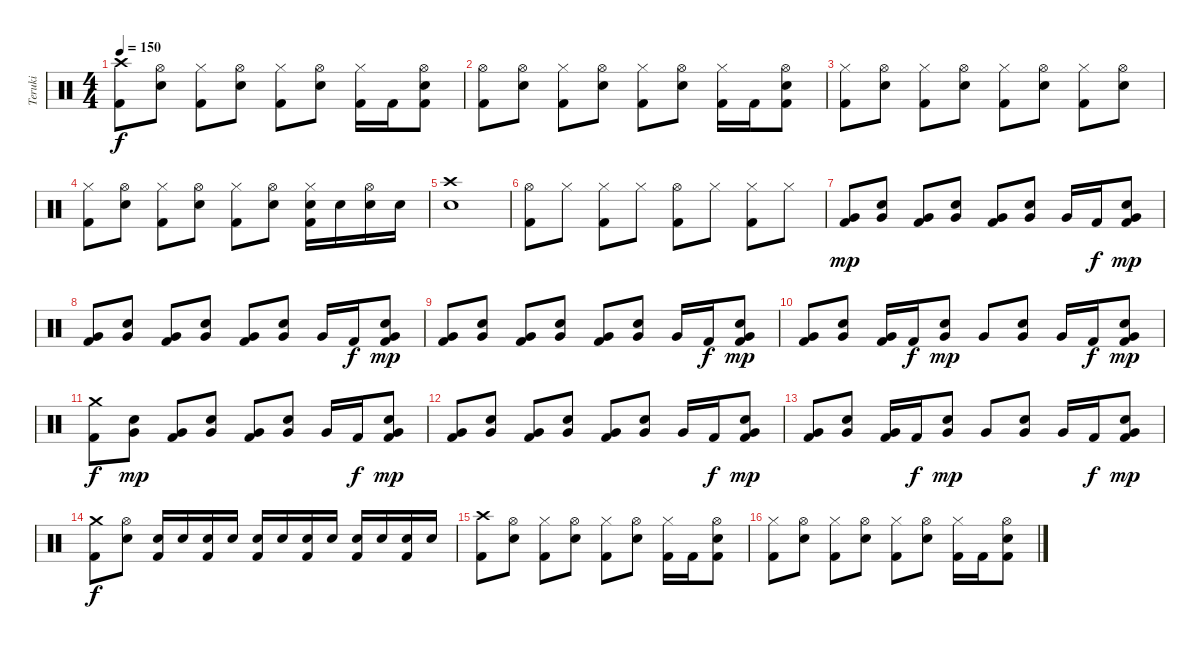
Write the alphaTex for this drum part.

\track ("Teruki" "Teruki") {instrument percussion}
\staff {score}
\articulation defaults
\ts (4 4)
\tempo 150
\clef neutral
\ks c
("Crash high (hit)" "Kick (hit) 2").8{dy f} ("Hi-Hat (open)" "Electric Snare (hit)").8 ("Hi-Hat (closed)" "Kick (hit) 2").8 ("Hi-Hat (open)" "Electric Snare (hit)").8 ("Hi-Hat (closed)" "Kick (hit) 2").8 ("Hi-Hat (open)" "Electric Snare (hit)").8 ("Hi-Hat (closed)" "Kick (hit) 2").16 "Kick (hit) 2".16 ("Hi-Hat (open)" "Electric Snare (hit)" "Kick (hit) 2").8 |
("Hi-Hat (open)" "Kick (hit) 2").8 ("Hi-Hat (open)" "Electric Snare (hit)").8 ("Hi-Hat (closed)" "Kick (hit) 2").8 ("Hi-Hat (open)" "Electric Snare (hit)").8 ("Hi-Hat (closed)" "Kick (hit) 2").8 ("Hi-Hat (open)" "Electric Snare (hit)").8 ("Hi-Hat (closed)" "Kick (hit) 2").16 "Kick (hit) 2".16 ("Hi-Hat (open)" "Electric Snare (hit)" "Kick (hit) 2").8 |
("Hi-Hat (closed)" "Kick (hit) 2").8 ("Hi-Hat (open)" "Electric Snare (hit)").8 ("Hi-Hat (closed)" "Kick (hit) 2").8 ("Hi-Hat (open)" "Electric Snare (hit)").8 ("Hi-Hat (closed)" "Kick (hit) 2").8 ("Hi-Hat (open)" "Electric Snare (hit)").8 ("Hi-Hat (closed)" "Kick (hit) 2").8 ("Hi-Hat (open)" "Electric Snare (hit)").8 |
("Hi-Hat (closed)" "Kick (hit) 2").8 ("Hi-Hat (open)" "Electric Snare (hit)").8 ("Hi-Hat (closed)" "Kick (hit) 2").8 ("Hi-Hat (open)" "Electric Snare (hit)").8 ("Hi-Hat (closed)" "Kick (hit) 2").8 ("Hi-Hat (open)" "Electric Snare (hit)").8 ("Hi-Hat (closed)" "Electric Snare (hit)" "Kick (hit) 2").16 "Electric Snare (hit)".16 ("Hi-Hat (open)" "Electric Snare (hit)").16 "Electric Snare (hit)".16 |
("Crash high (hit)" "Electric Snare (hit)").1 |
("Hi-Hat (open)" "Kick (hit) 2").8 "Hi-Hat (closed)".8 ("Hi-Hat (closed)" "Kick (hit) 2").8 "Hi-Hat (closed)".8 ("Hi-Hat (open)" "Kick (hit) 2").8 "Hi-Hat (closed)".8 ("Hi-Hat (closed)" "Kick (hit) 2").8 "Hi-Hat (closed)".8 |
("Very Low Tom (hit)" "Kick (hit) 2").8{dy mp} ("Very Low Tom (hit)" "Electric Snare (hit)").8 ("Very Low Tom (hit)" "Kick (hit) 2").8 ("Very Low Tom (hit)" "Electric Snare (hit)").8 ("Very Low Tom (hit)" "Kick (hit) 2").8 ("Very Low Tom (hit)" "Electric Snare (hit)").8 "Very Low Tom (hit)".16 "Kick (hit) 2".16{dy f} ("Very Low Tom (hit)" "Electric Snare (hit)" "Kick (hit) 2").8{dy mp} |
("Very Low Tom (hit)" "Kick (hit) 2").8 ("Very Low Tom (hit)" "Electric Snare (hit)").8 ("Very Low Tom (hit)" "Kick (hit) 2").8 ("Very Low Tom (hit)" "Electric Snare (hit)").8 ("Very Low Tom (hit)" "Kick (hit) 2").8 ("Very Low Tom (hit)" "Electric Snare (hit)").8 "Very Low Tom (hit)".16 "Kick (hit) 2".16{dy f} ("Very Low Tom (hit)" "Electric Snare (hit)" "Kick (hit) 2").8{dy mp} |
("Very Low Tom (hit)" "Kick (hit) 2").8 ("Very Low Tom (hit)" "Electric Snare (hit)").8 ("Very Low Tom (hit)" "Kick (hit) 2").8 ("Very Low Tom (hit)" "Electric Snare (hit)").8 ("Very Low Tom (hit)" "Kick (hit) 2").8 ("Very Low Tom (hit)" "Electric Snare (hit)").8 "Very Low Tom (hit)".16 "Kick (hit) 2".16{dy f} ("Very Low Tom (hit)" "Electric Snare (hit)" "Kick (hit) 2").8{dy mp} |
("Very Low Tom (hit)" "Kick (hit) 2").8 ("Very Low Tom (hit)" "Electric Snare (hit)").8 ("Very Low Tom (hit)" "Kick (hit) 2").16 "Kick (hit) 2".16{dy f} ("Very Low Tom (hit)" "Electric Snare (hit)").8{dy mp} "Very Low Tom (hit)".8 ("Very Low Tom (hit)" "Electric Snare (hit)").8 "Very Low Tom (hit)".16 "Kick (hit) 2".16{dy f} ("Very Low Tom (hit)" "Electric Snare (hit)" "Kick (hit) 2").8{dy mp} |
("Crash medium (hit)" "Kick (hit) 2").8{dy f} ("Very Low Tom (hit)" "Electric Snare (hit)").8{dy mp} ("Very Low Tom (hit)" "Kick (hit) 2").8 ("Very Low Tom (hit)" "Electric Snare (hit)").8 ("Very Low Tom (hit)" "Kick (hit) 2").8 ("Very Low Tom (hit)" "Electric Snare (hit)").8 "Very Low Tom (hit)".16 "Kick (hit) 2".16{dy f} ("Very Low Tom (hit)" "Electric Snare (hit)" "Kick (hit) 2").8{dy mp} |
("Very Low Tom (hit)" "Kick (hit) 2").8 ("Very Low Tom (hit)" "Electric Snare (hit)").8 ("Very Low Tom (hit)" "Kick (hit) 2").8 ("Very Low Tom (hit)" "Electric Snare (hit)").8 ("Very Low Tom (hit)" "Kick (hit) 2").8 ("Very Low Tom (hit)" "Electric Snare (hit)").8 "Very Low Tom (hit)".16 "Kick (hit) 2".16{dy f} ("Very Low Tom (hit)" "Electric Snare (hit)" "Kick (hit) 2").8{dy mp} |
("Very Low Tom (hit)" "Kick (hit) 2").8 ("Very Low Tom (hit)" "Electric Snare (hit)").8 ("Very Low Tom (hit)" "Kick (hit) 2").16 "Kick (hit) 2".16{dy f} ("Very Low Tom (hit)" "Electric Snare (hit)").8{dy mp} "Very Low Tom (hit)".8 ("Very Low Tom (hit)" "Electric Snare (hit)").8 "Very Low Tom (hit)".16 "Kick (hit) 2".16{dy f} ("Very Low Tom (hit)" "Electric Snare (hit)" "Kick (hit) 2").8{dy mp} |
("Crash medium (hit)" "Kick (hit) 2").8{dy f} ("Hi-Hat (open)" "Electric Snare (hit)").8 ("Electric Snare (hit)" "Kick (hit) 2").16 "Electric Snare (hit)".16 ("Electric Snare (hit)" "Kick (hit) 2").16 "Electric Snare (hit)".16 ("Electric Snare (hit)" "Kick (hit) 2").16 "Electric Snare (hit)".16 ("Electric Snare (hit)" "Kick (hit) 2").16 "Electric Snare (hit)".16 ("Electric Snare (hit)" "Kick (hit) 2").16 "Electric Snare (hit)".16 ("Electric Snare (hit)" "Kick (hit) 2").16 "Electric Snare (hit)".16 |
("Crash high (hit)" "Kick (hit) 2").8 ("Hi-Hat (open)" "Electric Snare (hit)").8 ("Hi-Hat (closed)" "Kick (hit) 2").8 ("Hi-Hat (open)" "Electric Snare (hit)").8 ("Hi-Hat (closed)" "Kick (hit) 2").8 ("Hi-Hat (open)" "Electric Snare (hit)").8 ("Hi-Hat (closed)" "Kick (hit) 2").16 "Kick (hit) 2".16 ("Hi-Hat (open)" "Electric Snare (hit)" "Kick (hit) 2").8 |
("Hi-Hat (closed)" "Kick (hit) 2").8 ("Hi-Hat (open)" "Electric Snare (hit)").8 ("Hi-Hat (closed)" "Kick (hit) 2").8 ("Hi-Hat (open)" "Electric Snare (hit)").8 ("Hi-Hat (closed)" "Kick (hit) 2").8 ("Hi-Hat (open)" "Electric Snare (hit)").8 ("Hi-Hat (closed)" "Kick (hit) 2").16 "Kick (hit) 2".16 ("Hi-Hat (open)" "Electric Snare (hit)" "Kick (hit) 2").8
